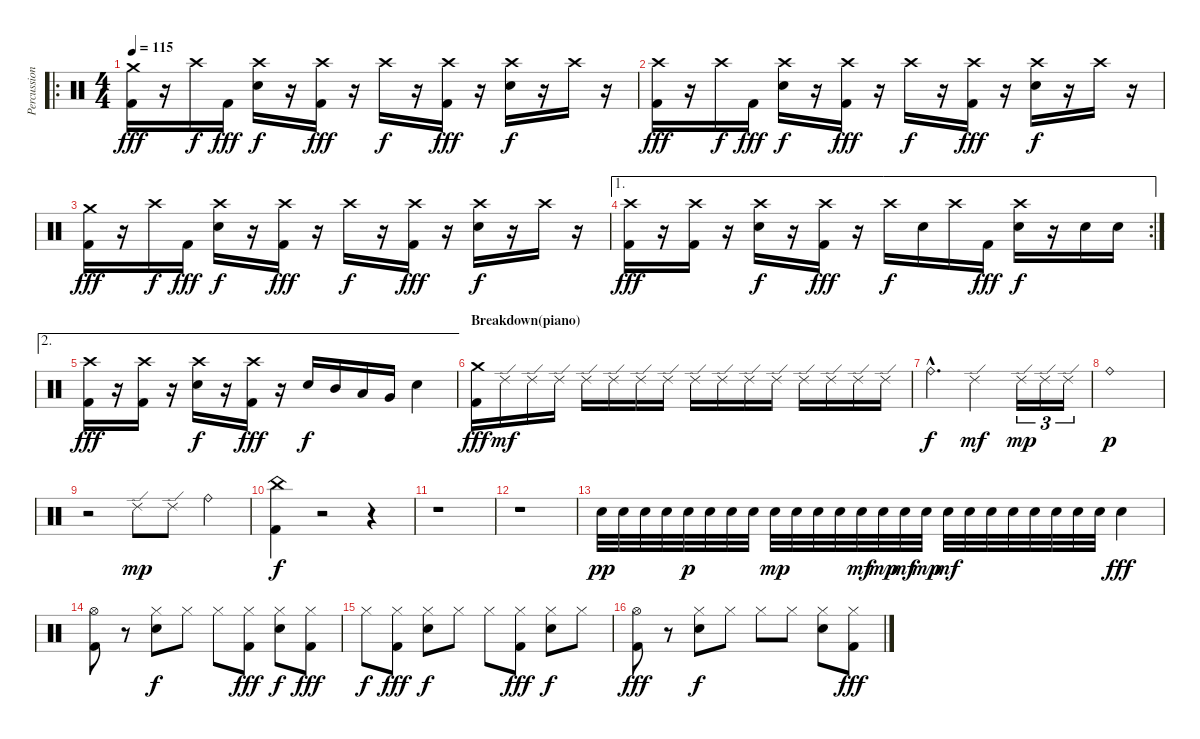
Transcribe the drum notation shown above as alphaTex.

\track ("Percussion" "Percussion") {instrument percussion}
\staff {score}
\articulation defaults
\ro
\ts (4 4)
\tempo 115
\clef neutral
\ks c
("Crash medium (hit)" "Kick (hit) 2").16{dy fff} r.16 "Crash high (hit)".16{dy f} "Kick (hit) 2".16{dy fff} ("Crash high (hit)" "Electric Snare (hit)").16{dy f} r.16 ("Crash high (hit)" "Kick (hit) 2").16{dy fff} r.16 "Crash high (hit)".16{dy f} r.16 ("Crash high (hit)" "Kick (hit) 2").16{dy fff} r.16 ("Crash high (hit)" "Electric Snare (hit)").16{dy f} r.16 "Crash high (hit)".16 r.16 |
("Crash high (hit)" "Kick (hit) 2").16{dy fff} r.16 "Crash high (hit)".16{dy f} "Kick (hit) 2".16{dy fff} ("Crash high (hit)" "Electric Snare (hit)").16{dy f} r.16 ("Crash high (hit)" "Kick (hit) 2").16{dy fff} r.16 "Crash high (hit)".16{dy f} r.16 ("Crash high (hit)" "Kick (hit) 2").16{dy fff} r.16 ("Crash high (hit)" "Electric Snare (hit)").16{dy f} r.16 "Crash high (hit)".16 r.16 |
("Crash medium (hit)" "Kick (hit) 2").16{dy fff} r.16 "Crash high (hit)".16{dy f} "Kick (hit) 2".16{dy fff} ("Crash high (hit)" "Electric Snare (hit)").16{dy f} r.16 ("Crash high (hit)" "Kick (hit) 2").16{dy fff} r.16 "Crash high (hit)".16{dy f} r.16 ("Crash high (hit)" "Kick (hit) 2").16{dy fff} r.16 ("Crash high (hit)" "Electric Snare (hit)").16{dy f} r.16 "Crash high (hit)".16 r.16 |
\ae 1
\rc 2
("Crash high (hit)" "Kick (hit) 2").16{dy fff} r.16 ("Crash high (hit)" "Kick (hit) 2").16 r.16 ("Crash high (hit)" "Electric Snare (hit)").16{dy f} r.16 ("Crash high (hit)" "Kick (hit) 2").16{dy fff} r.16 "Crash high (hit)".16{dy f} "Electric Snare (hit)".16 "Crash high (hit)".16 "Kick (hit) 2".16{dy fff} ("Crash high (hit)" "Electric Snare (hit)").16{dy f} r.16 "Electric Snare (hit)".16 "Electric Snare (hit)".16 |
\ae 2
("Crash high (hit)" "Kick (hit) 2").16{dy fff} r.16 ("Crash high (hit)" "Kick (hit) 2").16 r.16 ("Crash high (hit)" "Electric Snare (hit)").16{dy f} r.16 ("Crash high (hit)" "Kick (hit) 2").16{dy fff} r.16 "Electric Snare (hit)".16{dy f} "Mid Tom (hit)".16 "Low Tom (hit)".16 "Very Low Tom (hit)".16 "Electric Snare (hit)".4 |
\section ("" "Breakdown(piano)")
("Crash medium (hit)" "Kick (hit) 2").16{dy fff} "Ride (edge) 2".16{dy mf} "Ride (edge) 2".16 "Ride (edge) 2".16 "Ride (edge) 2".16 "Ride (edge) 2".16 "Ride (edge) 2".16 "Ride (edge) 2".16 "Ride (edge) 2".16 "Ride (edge) 2".16 "Ride (edge) 2".16 "Ride (edge) 2".16 "Ride (edge) 2".16 "Ride (edge) 2".16 "Ride (edge) 2".16 "Ride (edge) 2".16 |
"Ride (bell)"{hac}.4{d dy f} "Ride (edge) 2".2{dy mf} "Ride (edge) 2".16{tu (3 2) dy mp} "Ride (edge) 2".16{tu (3 2)} "Ride (edge) 2".16{tu (3 2)} |
"Ride (bell)".1{dy p} |
r.2 "Ride (edge) 2".8{dy mp} "Ride (edge) 2".8 "Ride (bell)".4 |
("China (hit)" "Kick (hit) 2").4{dy f} r.2 r.4 |
r.1 |
r.1 |
"Electric Snare (hit)".32{dy pp} "Electric Snare (hit)".32 "Electric Snare (hit)".32 "Electric Snare (hit)".32 "Electric Snare (hit)".32{dy p} "Electric Snare (hit)".32 "Electric Snare (hit)".32 "Electric Snare (hit)".32 "Electric Snare (hit)".32{dy mp} "Electric Snare (hit)".32 "Electric Snare (hit)".32 "Electric Snare (hit)".32 "Electric Snare (hit)".32{dy mf} "Electric Snare (hit)".32{dy mp} "Electric Snare (hit)".32{dy mf} "Electric Snare (hit)".32{dy mp} "Electric Snare (hit)".32{dy mf} "Electric Snare (hit)".32 "Electric Snare (hit)".32 "Electric Snare (hit)".32 "Electric Snare (hit)".32 "Electric Snare (hit)".32 "Electric Snare (hit)".32 "Electric Snare (hit)".32 "Electric Snare (hit)".4{dy fff} |
("Hi-Hat (open)" "Kick (hit) 2").8 r.8 ("Hi-Hat (closed)" "Electric Snare (hit)").8{dy f} "Hi-Hat (closed)".8 "Hi-Hat (closed)".8 ("Hi-Hat (closed)" "Kick (hit) 2").8{dy fff} ("Hi-Hat (closed)" "Electric Snare (hit)").8{dy f} ("Hi-Hat (closed)" "Kick (hit) 2").8{dy fff} |
"Hi-Hat (closed)".8{dy f} ("Hi-Hat (closed)" "Kick (hit) 2").8{dy fff} ("Hi-Hat (closed)" "Electric Snare (hit)").8{dy f} "Hi-Hat (closed)".8 "Hi-Hat (closed)".8 ("Hi-Hat (closed)" "Kick (hit) 2").8{dy fff} ("Hi-Hat (closed)" "Electric Snare (hit)").8{dy f} "Hi-Hat (closed)".8 |
("Hi-Hat (open)" "Kick (hit) 2").8{dy fff} r.8 ("Hi-Hat (closed)" "Electric Snare (hit)").8{dy f} "Hi-Hat (closed)".8 "Hi-Hat (closed)".8 "Hi-Hat (closed)".8 ("Hi-Hat (closed)" "Electric Snare (hit)").8 ("Hi-Hat (closed)" "Kick (hit) 2").8{dy fff}
